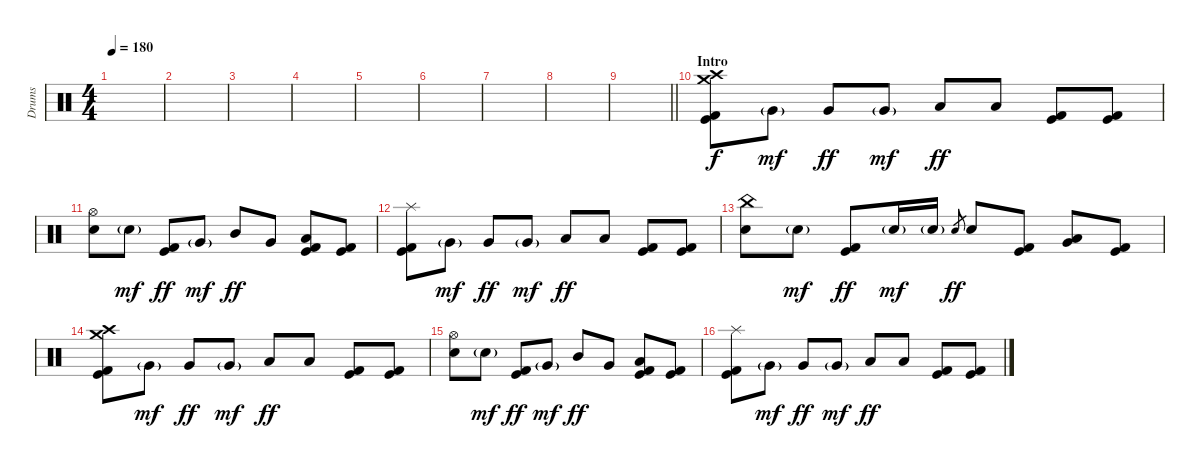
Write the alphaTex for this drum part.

\track ("Drums" "Drums") {instrument percussion}
\staff {score}
\articulation defaults
\ts (4 4)
\tempo 180
\clef neutral
\ks c
|
|
|
|
|
|
|
|
\barLineRight lightlight
|
\section ("" "Intro")
("Crash medium (hit)" "Crash high (hit)" "Kick (hit)" "Kick (hit) 2").8 "Very Low Tom (hit)"{g}.8{dy mf} "Very Low Tom (hit)".8{dy ff} "Very Low Tom (hit)"{g}.8{dy mf} "Low Floor Tom (hit)".8{dy ff} "Low Floor Tom (hit)".8 ("Kick (hit)" "Kick (hit) 2").8 ("Kick (hit)" "Kick (hit) 2").8 |
("Hi-Hat (open)" "Electric Snare (hit)").8 "Electric Snare (hit)"{g}.8{dy mf} ("Kick (hit)" "Kick (hit) 2").8{dy ff} "Very Low Tom (hit)"{g}.8{dy mf} "Mid Tom (hit)".8{dy ff} "Very Low Tom (hit)".8 ("Low Floor Tom (hit)" "Kick (hit)" "Kick (hit) 2").8 ("Kick (hit)" "Kick (hit) 2").8 |
("Splash (hit)" "Kick (hit)" "Kick (hit) 2").8 "Very Low Tom (hit)"{g}.8{dy mf} "Very Low Tom (hit)".8{dy ff} "Very Low Tom (hit)"{g}.8{dy mf} "Low Floor Tom (hit)".8{dy ff} "Low Floor Tom (hit)".8 ("Kick (hit)" "Kick (hit) 2").8 ("Kick (hit)" "Kick (hit) 2").8 |
("China (hit)" "Electric Snare (hit)").8 "Electric Snare (hit)"{g}.8{dy mf} ("Kick (hit)" "Kick (hit) 2").8{dy ff} "Electric Snare (hit)"{g}.16{dy mf} "Electric Snare (hit)"{g}.16 "Electric Snare (hit)".8{gr dy ff} "Electric Snare (hit)".8 ("Kick (hit)" "Kick (hit) 2").8 ("Very Low Tom (hit)" "Low Floor Tom (hit)").8 ("Kick (hit)" "Kick (hit) 2").8 |
("Crash medium (hit)" "Crash high (hit)" "Kick (hit)" "Kick (hit) 2").8 "Very Low Tom (hit)"{g}.8{dy mf} "Very Low Tom (hit)".8{dy ff} "Very Low Tom (hit)"{g}.8{dy mf} "Low Floor Tom (hit)".8{dy ff} "Low Floor Tom (hit)".8 ("Kick (hit)" "Kick (hit) 2").8 ("Kick (hit)" "Kick (hit) 2").8 |
("Hi-Hat (open)" "Electric Snare (hit)").8 "Electric Snare (hit)"{g}.8{dy mf} ("Kick (hit)" "Kick (hit) 2").8{dy ff} "Very Low Tom (hit)"{g}.8{dy mf} "Mid Tom (hit)".8{dy ff} "Very Low Tom (hit)".8 ("Low Floor Tom (hit)" "Kick (hit)" "Kick (hit) 2").8 ("Kick (hit)" "Kick (hit) 2").8 |
("Splash (hit)" "Kick (hit)" "Kick (hit) 2").8 "Very Low Tom (hit)"{g}.8{dy mf} "Very Low Tom (hit)".8{dy ff} "Very Low Tom (hit)"{g}.8{dy mf} "Low Floor Tom (hit)".8{dy ff} "Low Floor Tom (hit)".8 ("Kick (hit)" "Kick (hit) 2").8 ("Kick (hit)" "Kick (hit) 2").8
